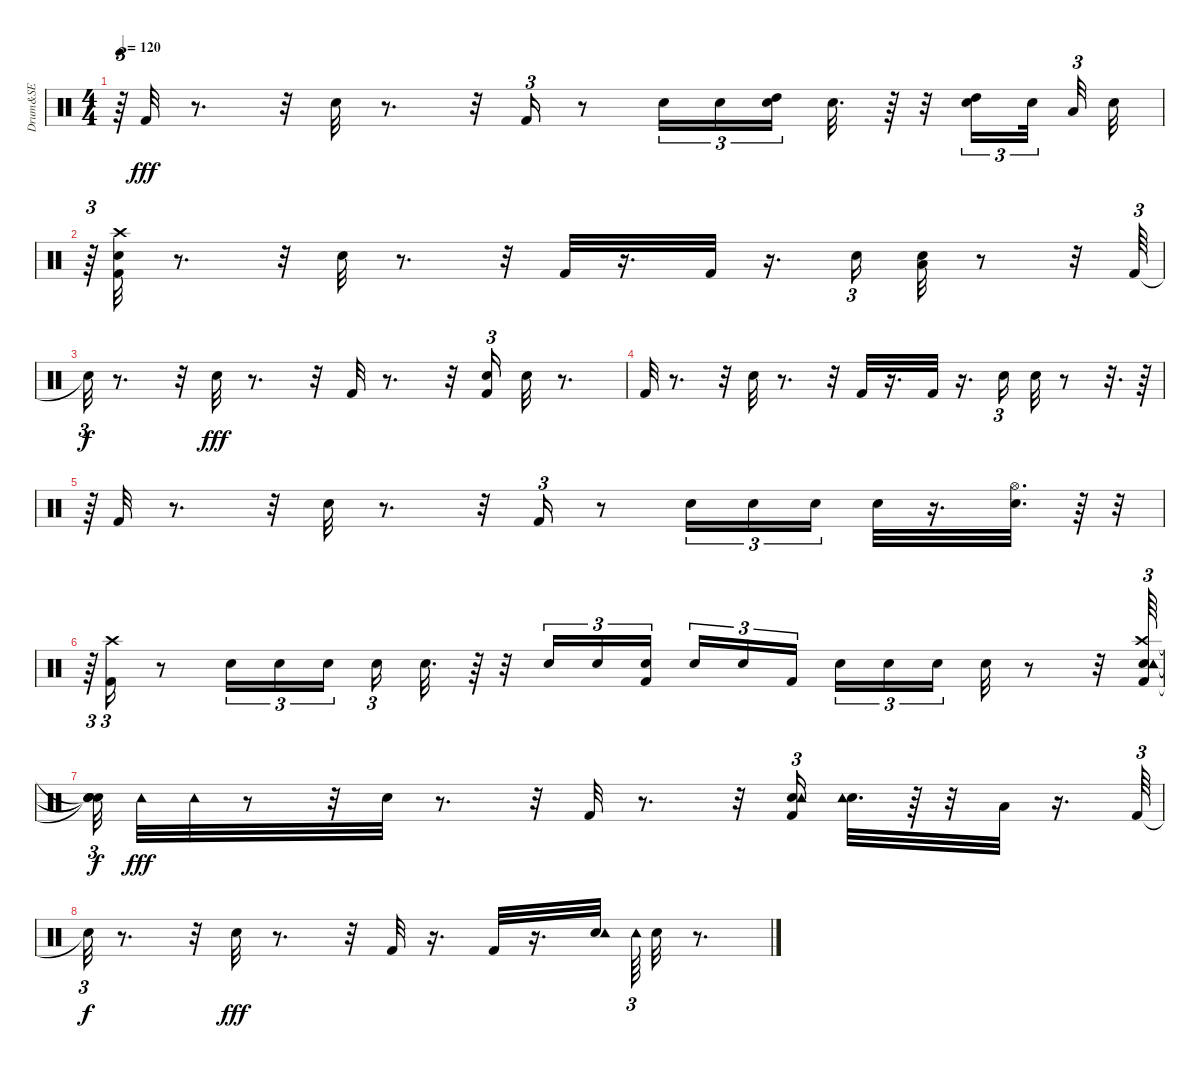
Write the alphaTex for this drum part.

\track ("Drum&SE" "Drum&SE") {instrument percussion}
\staff {score}
\articulation defaults
\ts (4 4)
\tempo 120
\clef neutral
\ks c
r.64{tu (3 2) dy fff} "Kick (hit) 2".32 r.8{d} r.32 "Snare (hit) 2".32 r.8{d} r.32 "Kick (hit) 2".16{tu (3 2)} r.8 "Snare (hit) 2".16{tu (3 2)} "Snare (hit) 2".16{tu (3 2)} ("Snare (hit) 2" "High Tom (hit)").16{tu (3 2)} "Snare (hit) 2".32{d} r.64 r.32 ("Snare (hit) 2" "High Tom (hit)").16{tu (3 2)} "Snare (hit) 2".32{tu (3 2)} "Low Tom (hit)".32{tu (3 2)} "Snare (hit) 2".32 |
r.64{tu (3 2)} ("Kick (hit) 2" "Snare (hit) 2" "Crash high (hit)").32 r.8{d} r.32 "Snare (hit) 2".32 r.8{d} r.32 "Kick (hit) 2".32 r.16{d} "Kick (hit) 2".32 r.16{d} "Snare (hit) 2".16{tu (3 2)} ("Snare (hit) 2" "Low Floor Tom (hit)").32 r.8 r.32 "Kick (hit) 2".64{tu (3 2)} |
"Snare (hit)"{t}.32{tu (3 2) dy f} r.8{d} r.32 "Snare (hit) 2".32{dy fff} r.8{d} r.32 "Kick (hit) 2".32 r.8{d} r.32 ("Kick (hit) 2" "Snare (hit) 2").16{tu (3 2)} "Snare (hit) 2".32 r.8{d} |
"Kick (hit) 2".32 r.8{d} r.32 "Snare (hit) 2".32 r.8{d} r.32 "Kick (hit) 2".32 r.16{d} "Kick (hit) 2".32 r.16{d} "Snare (hit) 2".16{tu (3 2)} "Snare (hit) 2".32 r.8 r.32{d} r.64 |
r.64{tu (3 2)} "Kick (hit) 2".32 r.8{d} r.32 "Snare (hit) 2".32 r.8{d} r.32 "Kick (hit) 2".16{tu (3 2)} r.8 "Snare (hit) 2".16{tu (3 2)} "Snare (hit) 2".16{tu (3 2)} "Snare (hit) 2".16{tu (3 2)} "Snare (hit) 2".32 r.16{d} ("Snare (hit) 2" "Hi-Hat (open)").32{d} r.64 r.32{tu (3 2)} |
r.64{tu (3 2)} ("Kick (hit) 2" "Crash high (hit)").16{tu (3 2)} r.8 "Snare (hit) 2".16{tu (3 2)} "Snare (hit) 2".16{tu (3 2)} "Snare (hit) 2".16{tu (3 2)} "Snare (hit) 2".16{tu (3 2)} "Snare (hit) 2".32{d} r.64 r.32 "Snare (hit) 2".16{tu (3 2)} "Snare (hit) 2".16{tu (3 2)} ("Kick (hit) 2" "Snare (hit) 2").16{tu (3 2)} "Snare (hit) 2".16{tu (3 2)} "Snare (hit) 2".16{tu (3 2)} "Kick (hit) 2".16{tu (3 2)} "Snare (hit) 2".16{tu (3 2)} "Snare (hit) 2".16{tu (3 2)} "Snare (hit) 2".16{tu (3 2)} "Snare (hit) 2".32 r.8 r.32 ("Crash high (hit)" "Kick (hit) 2" "Snare (hit) 2" "Tambourine (hit)").64{tu (3 2)} |
("Snare (hit)"{t} "Snare (hit)"{t} "Snare (hit)"{t} "Snare (hit)"{t}).32{tu (3 2) dy f} "Tambourine (hit)".32{dy fff} "Tambourine (hit)".32 r.8 r.32 "Snare (hit) 2".32 r.8{d} r.32 "Kick (hit) 2".32 r.8{d} r.32 ("Kick (hit) 2" "Snare (hit) 2" "Tambourine (hit)").16{tu (3 2)} ("Snare (hit) 2" "Tambourine (hit)").32{d} r.64 r.32 "Low Floor Tom (hit)".32 r.16{d} "Kick (hit) 2".64{tu (3 2)} |
"Snare (hit)"{t}.32{tu (3 2) dy f} r.8{d} r.32 "Snare (hit) 2".32{dy fff} r.8{d} r.32 "Kick (hit) 2".32 r.16{d} "Kick (hit) 2".32 r.16{d} ("Snare (hit) 2" "Tambourine (hit)").32 "Tambourine (hit)".64{tu (3 2)} "Snare (hit) 2".32 r.8{d}
